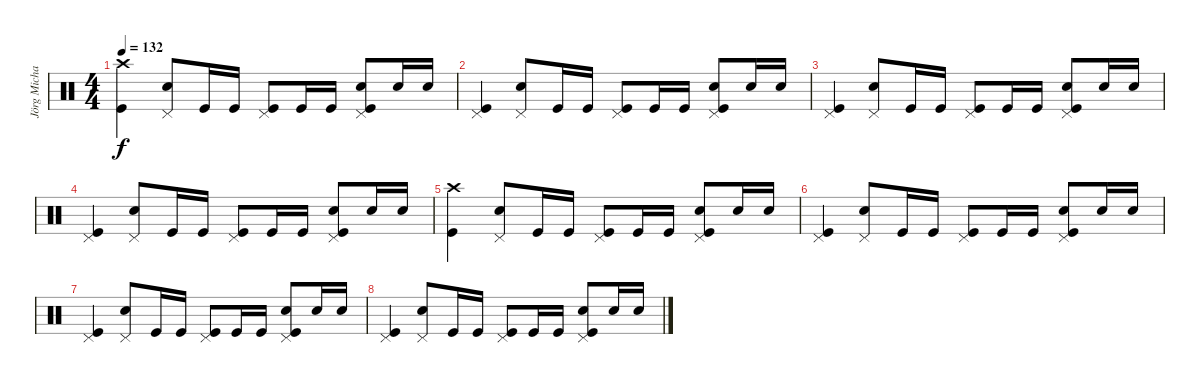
\track ("Jörg Michael (Drums)" "Jörg Micha") {instrument percussion}
\staff {score}
\articulation defaults
\ts (4 4)
\tempo 132
\clef neutral
\ks c
("Crash high (hit)" "Kick (hit)").4{dy f volume 9} ("Pedal Hi-Hat (hit)" "Snare (hit) 2").8 "Kick (hit)".16 "Kick (hit)".16 ("Pedal Hi-Hat (hit)" "Kick (hit)").8 "Kick (hit)".16 "Kick (hit)".16 ("Pedal Hi-Hat (hit)" "Kick (hit)" "Snare (hit) 2").8 "Snare (hit) 2".16 "Snare (hit) 2".16 |
("Pedal Hi-Hat (hit)" "Kick (hit)").4 ("Pedal Hi-Hat (hit)" "Snare (hit) 2").8 "Kick (hit)".16 "Kick (hit)".16 ("Pedal Hi-Hat (hit)" "Kick (hit)").8 "Kick (hit)".16 "Kick (hit)".16 ("Pedal Hi-Hat (hit)" "Kick (hit)" "Snare (hit) 2").8 "Snare (hit) 2".16 "Snare (hit) 2".16 |
("Pedal Hi-Hat (hit)" "Kick (hit)").4 ("Pedal Hi-Hat (hit)" "Snare (hit) 2").8 "Kick (hit)".16 "Kick (hit)".16 ("Pedal Hi-Hat (hit)" "Kick (hit)").8 "Kick (hit)".16 "Kick (hit)".16 ("Pedal Hi-Hat (hit)" "Kick (hit)" "Snare (hit) 2").8 "Snare (hit) 2".16 "Snare (hit) 2".16 |
("Pedal Hi-Hat (hit)" "Kick (hit)").4 ("Pedal Hi-Hat (hit)" "Snare (hit) 2").8 "Kick (hit)".16 "Kick (hit)".16 ("Pedal Hi-Hat (hit)" "Kick (hit)").8 "Kick (hit)".16 "Kick (hit)".16 ("Pedal Hi-Hat (hit)" "Kick (hit)" "Snare (hit) 2").8 "Snare (hit) 2".16 "Snare (hit) 2".16 |
("Crash high (hit)" "Kick (hit)").4{volume 0} ("Pedal Hi-Hat (hit)" "Snare (hit) 2").8 "Kick (hit)".16 "Kick (hit)".16 ("Pedal Hi-Hat (hit)" "Kick (hit)").8 "Kick (hit)".16 "Kick (hit)".16 ("Pedal Hi-Hat (hit)" "Kick (hit)" "Snare (hit) 2").8 "Snare (hit) 2".16 "Snare (hit) 2".16 |
("Pedal Hi-Hat (hit)" "Kick (hit)").4 ("Pedal Hi-Hat (hit)" "Snare (hit) 2").8 "Kick (hit)".16 "Kick (hit)".16 ("Pedal Hi-Hat (hit)" "Kick (hit)").8 "Kick (hit)".16 "Kick (hit)".16 ("Pedal Hi-Hat (hit)" "Kick (hit)" "Snare (hit) 2").8 "Snare (hit) 2".16 "Snare (hit) 2".16 |
("Pedal Hi-Hat (hit)" "Kick (hit)").4 ("Pedal Hi-Hat (hit)" "Snare (hit) 2").8 "Kick (hit)".16 "Kick (hit)".16 ("Pedal Hi-Hat (hit)" "Kick (hit)").8 "Kick (hit)".16 "Kick (hit)".16 ("Pedal Hi-Hat (hit)" "Kick (hit)" "Snare (hit) 2").8 "Snare (hit) 2".16 "Snare (hit) 2".16 |
("Pedal Hi-Hat (hit)" "Kick (hit)").4 ("Pedal Hi-Hat (hit)" "Snare (hit) 2").8 "Kick (hit)".16 "Kick (hit)".16 ("Pedal Hi-Hat (hit)" "Kick (hit)").8 "Kick (hit)".16 "Kick (hit)".16 ("Pedal Hi-Hat (hit)" "Kick (hit)" "Snare (hit) 2").8 "Snare (hit) 2".16 "Snare (hit) 2".16
